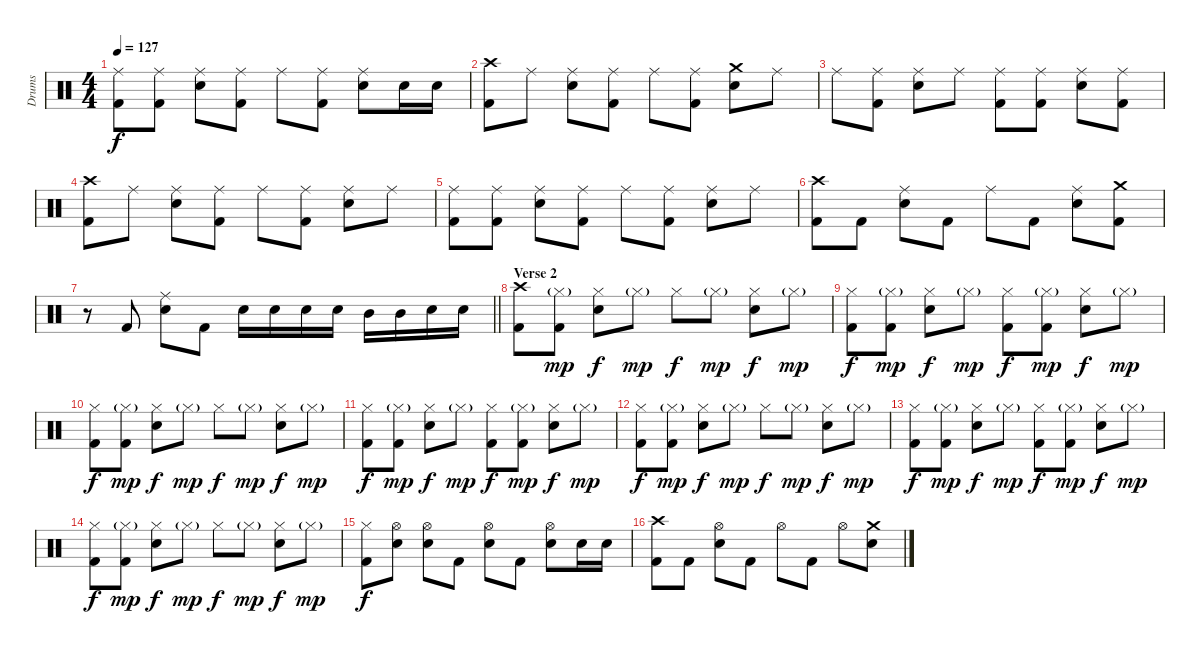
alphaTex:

\track ("Drums" "Drums") {instrument percussion}
\staff {score}
\articulation defaults
\ts (4 4)
\tempo 127
\clef neutral
\ks c
("Ride (middle)" "Kick (hit) 2").8{dy f} ("Ride (middle)" "Kick (hit) 2").8 ("Ride (middle)" "Electric Snare (hit)").8 ("Ride (middle)" "Kick (hit) 2").8 "Ride (middle)".8 ("Ride (middle)" "Kick (hit) 2").8 ("Ride (middle)" "Electric Snare (hit)").8 "Electric Snare (hit)".16 "Electric Snare (hit)".16 |
("Crash high (hit)" "Kick (hit) 2").8 "Ride (middle)".8 ("Ride (middle)" "Electric Snare (hit)").8 ("Ride (middle)" "Kick (hit) 2").8 "Ride (middle)".8 ("Ride (middle)" "Kick (hit) 2").8 ("Crash medium (hit)" "Electric Snare (hit)").8 "Ride (middle)".8 |
"Ride (middle)".8 ("Ride (middle)" "Kick (hit) 2").8 ("Ride (middle)" "Electric Snare (hit)").8 "Ride (middle)".8 ("Ride (middle)" "Kick (hit) 2").8 ("Ride (middle)" "Kick (hit) 2").8 ("Ride (middle)" "Electric Snare (hit)").8 ("Ride (middle)" "Kick (hit) 2").8 |
("Crash high (hit)" "Kick (hit) 2").8 "Ride (middle)".8 ("Ride (middle)" "Electric Snare (hit)").8 ("Ride (middle)" "Kick (hit) 2").8 "Ride (middle)".8 ("Ride (middle)" "Kick (hit) 2").8 ("Ride (middle)" "Electric Snare (hit)").8 "Ride (middle)".8 |
("Ride (middle)" "Kick (hit) 2").8 ("Ride (middle)" "Kick (hit) 2").8 ("Ride (middle)" "Electric Snare (hit)").8 ("Ride (middle)" "Kick (hit) 2").8 "Ride (middle)".8 ("Ride (middle)" "Kick (hit) 2").8 ("Ride (middle)" "Electric Snare (hit)").8 "Ride (middle)".8 |
("Crash high (hit)" "Kick (hit) 2").8 "Kick (hit) 2".8 ("Ride (middle)" "Electric Snare (hit)").8 "Kick (hit) 2".8 "Ride (middle)".8 "Kick (hit) 2".8 ("Ride (middle)" "Electric Snare (hit)").8 ("Crash medium (hit)" "Kick (hit) 2").8 |
\barLineRight lightlight
r.8 "Kick (hit) 2".8 ("Ride (middle)" "Electric Snare (hit)").8 "Kick (hit) 2".8 "Electric Snare (hit)".16 "Electric Snare (hit)".16 "Electric Snare (hit)".16 "Electric Snare (hit)".16 "Mid Tom (hit)".16 "Mid Tom (hit)".16 "Electric Snare (hit)".16 "Electric Snare (hit)".16 |
\section ("" "Verse 2")
("Crash high (hit)" "Kick (hit) 2").8 ("Hi-Hat (closed)"{g} "Kick (hit) 2").8{dy mp} ("Hi-Hat (closed)" "Electric Snare (hit)").8{dy f} "Hi-Hat (closed)"{g}.8{dy mp} "Hi-Hat (closed)".8{dy f} "Hi-Hat (closed)"{g}.8{dy mp} ("Hi-Hat (closed)" "Electric Snare (hit)").8{dy f} "Hi-Hat (closed)"{g}.8{dy mp} |
("Hi-Hat (closed)" "Kick (hit) 2").8{dy f} ("Hi-Hat (closed)"{g} "Kick (hit) 2").8{dy mp} ("Hi-Hat (closed)" "Electric Snare (hit)").8{dy f} "Hi-Hat (closed)"{g}.8{dy mp} ("Hi-Hat (closed)" "Kick (hit) 2").8{dy f} ("Hi-Hat (closed)"{g} "Kick (hit) 2").8{dy mp} ("Hi-Hat (closed)" "Electric Snare (hit)").8{dy f} "Hi-Hat (closed)"{g}.8{dy mp} |
("Hi-Hat (closed)" "Kick (hit) 2").8{dy f} ("Hi-Hat (closed)"{g} "Kick (hit) 2").8{dy mp} ("Hi-Hat (closed)" "Electric Snare (hit)").8{dy f} "Hi-Hat (closed)"{g}.8{dy mp} "Hi-Hat (closed)".8{dy f} "Hi-Hat (closed)"{g}.8{dy mp} ("Hi-Hat (closed)" "Electric Snare (hit)").8{dy f} "Hi-Hat (closed)"{g}.8{dy mp} |
("Hi-Hat (closed)" "Kick (hit) 2").8{dy f} ("Hi-Hat (closed)"{g} "Kick (hit) 2").8{dy mp} ("Hi-Hat (closed)" "Electric Snare (hit)").8{dy f} "Hi-Hat (closed)"{g}.8{dy mp} ("Hi-Hat (closed)" "Kick (hit) 2").8{dy f} ("Hi-Hat (closed)"{g} "Kick (hit) 2").8{dy mp} ("Hi-Hat (closed)" "Electric Snare (hit)").8{dy f} "Hi-Hat (closed)"{g}.8{dy mp} |
("Hi-Hat (closed)" "Kick (hit) 2").8{dy f} ("Hi-Hat (closed)"{g} "Kick (hit) 2").8{dy mp} ("Hi-Hat (closed)" "Electric Snare (hit)").8{dy f} "Hi-Hat (closed)"{g}.8{dy mp} "Hi-Hat (closed)".8{dy f} "Hi-Hat (closed)"{g}.8{dy mp} ("Hi-Hat (closed)" "Electric Snare (hit)").8{dy f} "Hi-Hat (closed)"{g}.8{dy mp} |
("Hi-Hat (closed)" "Kick (hit) 2").8{dy f} ("Hi-Hat (closed)"{g} "Kick (hit) 2").8{dy mp} ("Hi-Hat (closed)" "Electric Snare (hit)").8{dy f} "Hi-Hat (closed)"{g}.8{dy mp} ("Hi-Hat (closed)" "Kick (hit) 2").8{dy f} ("Hi-Hat (closed)"{g} "Kick (hit) 2").8{dy mp} ("Hi-Hat (closed)" "Electric Snare (hit)").8{dy f} "Hi-Hat (closed)"{g}.8{dy mp} |
("Hi-Hat (closed)" "Kick (hit) 2").8{dy f} ("Hi-Hat (closed)"{g} "Kick (hit) 2").8{dy mp} ("Hi-Hat (closed)" "Electric Snare (hit)").8{dy f} "Hi-Hat (closed)"{g}.8{dy mp} "Hi-Hat (closed)".8{dy f} "Hi-Hat (closed)"{g}.8{dy mp} ("Hi-Hat (closed)" "Electric Snare (hit)").8{dy f} "Hi-Hat (closed)"{g}.8{dy mp} |
("Hi-Hat (closed)" "Kick (hit) 2").8{dy f} ("Hi-Hat (open)" "Electric Snare (hit)").8 ("Hi-Hat (open)" "Electric Snare (hit)").8 "Kick (hit) 2".8 ("Hi-Hat (open)" "Electric Snare (hit)").8 "Kick (hit) 2".8 ("Hi-Hat (open)" "Electric Snare (hit)").8 "Electric Snare (hit)".16 "Electric Snare (hit)".16 |
("Crash high (hit)" "Kick (hit) 2").8 "Kick (hit) 2".8 ("Hi-Hat (open)" "Electric Snare (hit)").8 "Kick (hit) 2".8 "Hi-Hat (open)".8 "Kick (hit) 2".8 "Hi-Hat (open)".8 ("Crash medium (hit)" "Electric Snare (hit)").8
